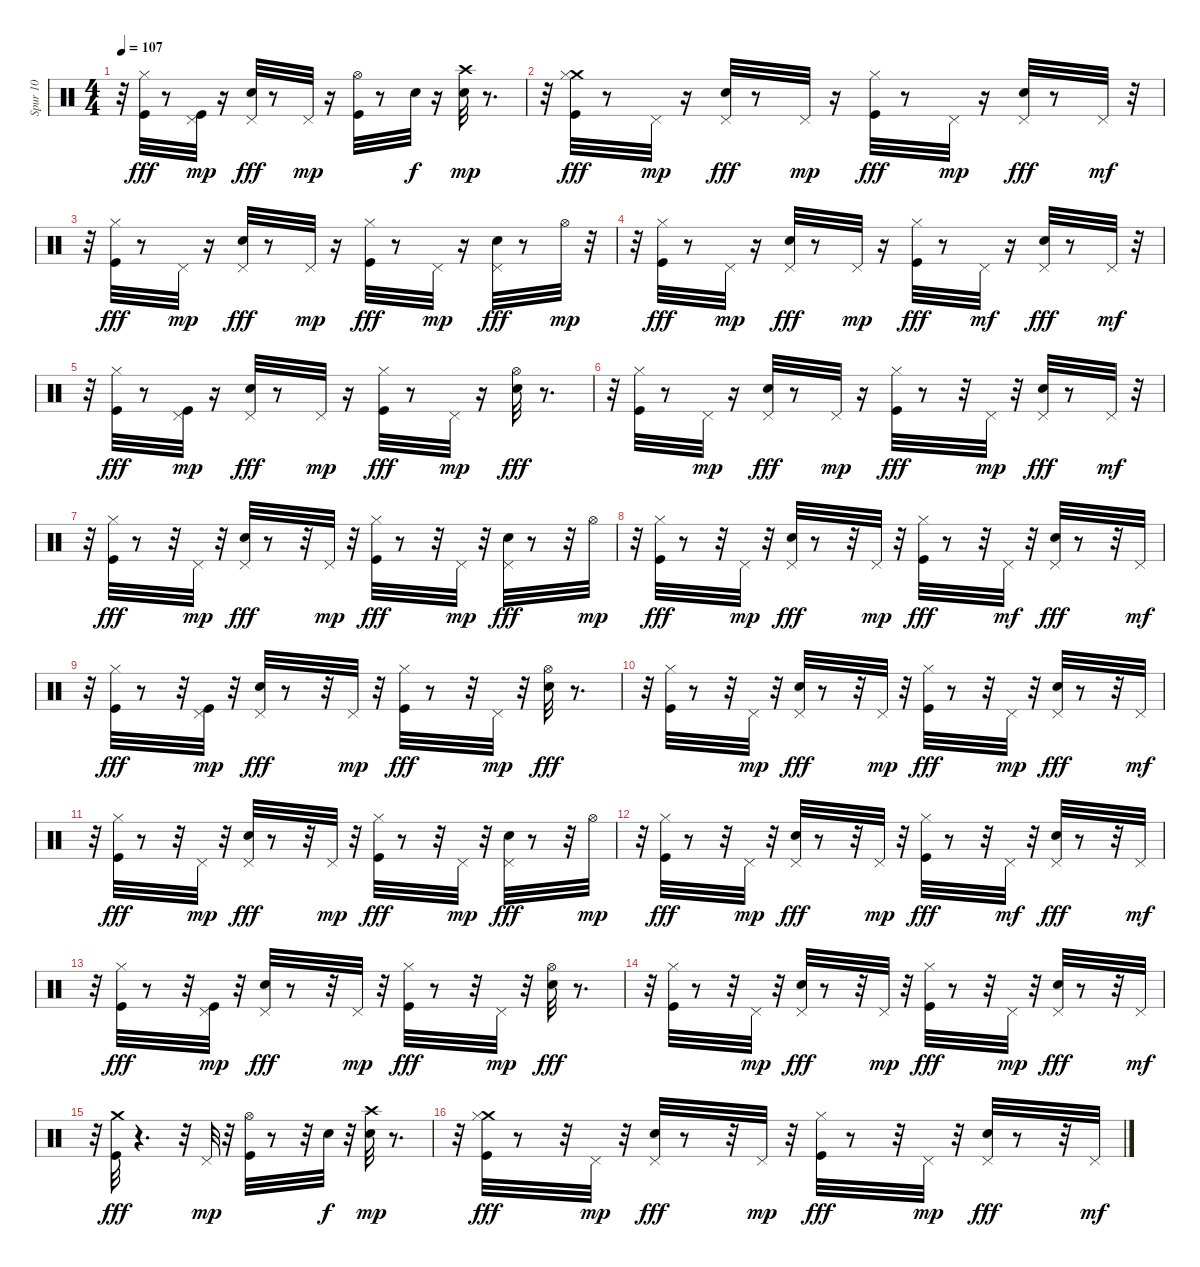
\track ("Spur 10" "Spur 10") {instrument percussion}
\staff {score}
\articulation defaults
\ts (4 4)
\tempo 107
\clef neutral
\ks c
r.32{dy mf} ("Hi-Hat (closed)" "Kick (hit)").32{dy fff} r.8 ("Pedal Hi-Hat (hit)" "Kick (hit)").32{dy mp} r.16 ("Pedal Hi-Hat (hit)" "Snare (hit) 2").32{dy fff} r.8 "Pedal Hi-Hat (hit)".32{dy mp} r.16 ("Kick (hit)" "Hi-Hat (open)").32 r.8 "Snare (hit) 2".32{dy f} r.16 ("Snare (hit) 2" "Crash high (hit)").32{dy mp} r.8{d} |
r.32 ("Crash medium (hit)" "Hi-Hat (closed)" "Kick (hit)").32{dy fff} r.8 "Pedal Hi-Hat (hit)".32{dy mp} r.16 ("Pedal Hi-Hat (hit)" "Snare (hit) 2").32{dy fff} r.8 "Pedal Hi-Hat (hit)".32{dy mp} r.16 ("Hi-Hat (closed)" "Kick (hit)").32{dy fff} r.8 "Pedal Hi-Hat (hit)".32{dy mp} r.16 ("Pedal Hi-Hat (hit)" "Snare (hit) 2").32{dy fff} r.8 "Pedal Hi-Hat (hit)".32{dy mf} r.32 |
r.32 ("Hi-Hat (closed)" "Kick (hit)").32{dy fff} r.8 "Pedal Hi-Hat (hit)".32{dy mp} r.16 ("Pedal Hi-Hat (hit)" "Snare (hit) 2").32{dy fff} r.8 "Pedal Hi-Hat (hit)".32{dy mp} r.16 ("Hi-Hat (closed)" "Kick (hit)").32{dy fff} r.8 "Pedal Hi-Hat (hit)".32{dy mp} r.16 ("Pedal Hi-Hat (hit)" "Snare (hit) 2").32{dy fff} r.8 "Hi-Hat (open)".32{dy mp} r.32 |
r.32 ("Hi-Hat (closed)" "Kick (hit)").32{dy fff} r.8 "Pedal Hi-Hat (hit)".32{dy mp} r.16 ("Pedal Hi-Hat (hit)" "Snare (hit) 2").32{dy fff} r.8 "Pedal Hi-Hat (hit)".32{dy mp} r.16 ("Hi-Hat (closed)" "Kick (hit)").32{dy fff} r.8 "Pedal Hi-Hat (hit)".32{dy mf} r.16 ("Pedal Hi-Hat (hit)" "Snare (hit) 2").32{dy fff} r.8 "Pedal Hi-Hat (hit)".32{dy mf} r.32 |
r.32 ("Hi-Hat (closed)" "Kick (hit)").32{dy fff} r.8 ("Pedal Hi-Hat (hit)" "Kick (hit)").32{dy mp} r.16 ("Pedal Hi-Hat (hit)" "Snare (hit) 2").32{dy fff} r.8 "Pedal Hi-Hat (hit)".32{dy mp} r.16 ("Hi-Hat (closed)" "Kick (hit)").32{dy fff} r.8 "Pedal Hi-Hat (hit)".32{dy mp} r.16 ("Hi-Hat (open)" "Snare (hit) 2").32{dy fff} r.8{d} |
r.32 ("Hi-Hat (closed)" "Kick (hit)").32 r.8 "Pedal Hi-Hat (hit)".32{dy mp} r.16 ("Pedal Hi-Hat (hit)" "Snare (hit) 2").32{dy fff} r.8 "Pedal Hi-Hat (hit)".32{dy mp} r.16 ("Hi-Hat (closed)" "Kick (hit)").32{dy fff} r.8 r.32 "Pedal Hi-Hat (hit)".32{dy mp} r.32 ("Pedal Hi-Hat (hit)" "Snare (hit) 2").32{dy fff} r.8 "Pedal Hi-Hat (hit)".32{dy mf} r.32 |
r.32 ("Hi-Hat (closed)" "Kick (hit)").32{dy fff} r.8 r.32 "Pedal Hi-Hat (hit)".32{dy mp} r.32 ("Pedal Hi-Hat (hit)" "Snare (hit) 2").32{dy fff} r.8 r.32 "Pedal Hi-Hat (hit)".32{dy mp} r.32 ("Hi-Hat (closed)" "Kick (hit)").32{dy fff} r.8 r.32 "Pedal Hi-Hat (hit)".32{dy mp} r.32 ("Pedal Hi-Hat (hit)" "Snare (hit) 2").32{dy fff} r.8 r.32 "Hi-Hat (open)".32{dy mp} |
r.32 ("Hi-Hat (closed)" "Kick (hit)").32{dy fff} r.8 r.32 "Pedal Hi-Hat (hit)".32{dy mp} r.32 ("Pedal Hi-Hat (hit)" "Snare (hit) 2").32{dy fff} r.8 r.32 "Pedal Hi-Hat (hit)".32{dy mp} r.32 ("Hi-Hat (closed)" "Kick (hit)").32{dy fff} r.8 r.32 "Pedal Hi-Hat (hit)".32{dy mf} r.32 ("Pedal Hi-Hat (hit)" "Snare (hit) 2").32{dy fff} r.8 r.32 "Pedal Hi-Hat (hit)".32{dy mf} |
r.32 ("Hi-Hat (closed)" "Kick (hit)").32{dy fff} r.8 r.32 ("Pedal Hi-Hat (hit)" "Kick (hit)").32{dy mp} r.32 ("Pedal Hi-Hat (hit)" "Snare (hit) 2").32{dy fff} r.8 r.32 "Pedal Hi-Hat (hit)".32{dy mp} r.32 ("Hi-Hat (closed)" "Kick (hit)").32{dy fff} r.8 r.32 "Pedal Hi-Hat (hit)".32{dy mp} r.32 ("Hi-Hat (open)" "Snare (hit) 2").32{dy fff} r.8{d} |
r.32 ("Hi-Hat (closed)" "Kick (hit)").32 r.8 r.32 "Pedal Hi-Hat (hit)".32{dy mp} r.32 ("Pedal Hi-Hat (hit)" "Snare (hit) 2").32{dy fff} r.8 r.32 "Pedal Hi-Hat (hit)".32{dy mp} r.32 ("Hi-Hat (closed)" "Kick (hit)").32{dy fff} r.8 r.32 "Pedal Hi-Hat (hit)".32{dy mp} r.32 ("Pedal Hi-Hat (hit)" "Snare (hit) 2").32{dy fff} r.8 r.32 "Pedal Hi-Hat (hit)".32{dy mf} |
r.32 ("Hi-Hat (closed)" "Kick (hit)").32{dy fff} r.8 r.32 "Pedal Hi-Hat (hit)".32{dy mp} r.32 ("Pedal Hi-Hat (hit)" "Snare (hit) 2").32{dy fff} r.8 r.32 "Pedal Hi-Hat (hit)".32{dy mp} r.32 ("Hi-Hat (closed)" "Kick (hit)").32{dy fff} r.8 r.32 "Pedal Hi-Hat (hit)".32{dy mp} r.32 ("Pedal Hi-Hat (hit)" "Snare (hit) 2").32{dy fff} r.8 r.32 "Hi-Hat (open)".32{dy mp} |
r.32 ("Hi-Hat (closed)" "Kick (hit)").32{dy fff} r.8 r.32 "Pedal Hi-Hat (hit)".32{dy mp} r.32 ("Pedal Hi-Hat (hit)" "Snare (hit) 2").32{dy fff} r.8 r.32 "Pedal Hi-Hat (hit)".32{dy mp} r.32 ("Hi-Hat (closed)" "Kick (hit)").32{dy fff} r.8 r.32 "Pedal Hi-Hat (hit)".32{dy mf} r.32 ("Pedal Hi-Hat (hit)" "Snare (hit) 2").32{dy fff} r.8 r.32 "Pedal Hi-Hat (hit)".32{dy mf} |
r.32 ("Hi-Hat (closed)" "Kick (hit)").32{dy fff} r.8 r.32 ("Pedal Hi-Hat (hit)" "Kick (hit)").32{dy mp} r.32 ("Pedal Hi-Hat (hit)" "Snare (hit) 2").32{dy fff} r.8 r.32 "Pedal Hi-Hat (hit)".32{dy mp} r.32 ("Hi-Hat (closed)" "Kick (hit)").32{dy fff} r.8 r.32 "Pedal Hi-Hat (hit)".32{dy mp} r.32 ("Hi-Hat (open)" "Snare (hit) 2").32{dy fff} r.8{d} |
r.32 ("Hi-Hat (closed)" "Kick (hit)").32 r.8 r.32 "Pedal Hi-Hat (hit)".32{dy mp} r.32 ("Pedal Hi-Hat (hit)" "Snare (hit) 2").32{dy fff} r.8 r.32 "Pedal Hi-Hat (hit)".32{dy mp} r.32 ("Hi-Hat (closed)" "Kick (hit)").32{dy fff} r.8 r.32 "Pedal Hi-Hat (hit)".32{dy mp} r.32 ("Pedal Hi-Hat (hit)" "Snare (hit) 2").32{dy fff} r.8 r.32 "Pedal Hi-Hat (hit)".32{dy mf} |
r.32 ("Crash medium (hit)" "Kick (hit)").32{dy fff} r.4{d} r.32 "Pedal Hi-Hat (hit)".32{dy mp} r.32 ("Kick (hit)" "Hi-Hat (open)").32 r.8 r.32 "Snare (hit) 2".32{dy f} r.32 ("Snare (hit) 2" "Crash high (hit)").32{dy mp} r.8{d} |
r.32 ("Crash medium (hit)" "Hi-Hat (closed)" "Kick (hit)").32{dy fff} r.8 r.32 "Pedal Hi-Hat (hit)".32{dy mp} r.32 ("Pedal Hi-Hat (hit)" "Snare (hit) 2").32{dy fff} r.8 r.32 "Pedal Hi-Hat (hit)".32{dy mp} r.32 ("Hi-Hat (closed)" "Kick (hit)").32{dy fff} r.8 r.32 "Pedal Hi-Hat (hit)".32{dy mp} r.32 ("Pedal Hi-Hat (hit)" "Snare (hit) 2").32{dy fff} r.8 r.32 "Pedal Hi-Hat (hit)".32{dy mf}
